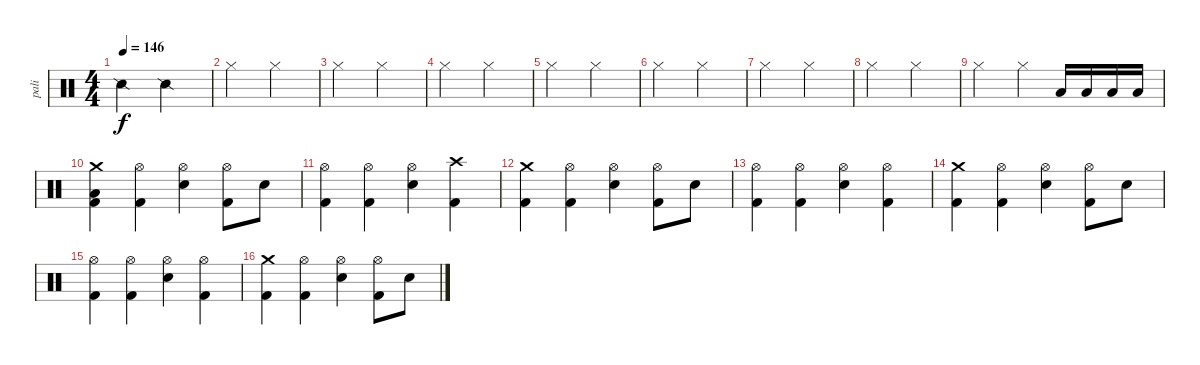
\track ("pali" "pali") {instrument percussion}
\staff {score}
\articulation defaults
\ts (4 4)
\tempo 146
\clef neutral
\ks c "Snare (side stick) 2".2{dy f} "Snare (side stick) 2".2
|
"Hi-Hat (closed)".2 "Hi-Hat (closed)".2 |
"Hi-Hat (closed)".2 "Hi-Hat (closed)".2 |
"Hi-Hat (closed)".2 "Hi-Hat (closed)".2 |
"Hi-Hat (closed)".2 "Hi-Hat (closed)".2 |
"Hi-Hat (closed)".2 "Hi-Hat (closed)".2 |
"Hi-Hat (closed)".2 "Hi-Hat (closed)".2 |
"Hi-Hat (closed)".2 "Hi-Hat (closed)".2 |
"Hi-Hat (closed)".2 "Hi-Hat (closed)".4 "Low Tom (hit)".16 "Low Tom (hit)".16 "Low Tom (hit)".16 "Low Tom (hit)".16 |
("Kick (hit) 2" "Low Floor Tom (hit)" "Crash medium (hit)").4 ("Kick (hit) 2" "Hi-Hat (open)").4 ("Electric Snare (hit)" "Hi-Hat (open)").4 ("Kick (hit) 2" "Hi-Hat (open)").8 "Electric Snare (hit)".8 |
("Kick (hit) 2" "Hi-Hat (open)").4 ("Kick (hit) 2" "Hi-Hat (open)").4 ("Electric Snare (hit)" "Hi-Hat (open)").4 ("Kick (hit) 2" "Crash high (hit)").4 |
("Kick (hit) 2" "Crash medium (hit)").4 ("Kick (hit) 2" "Hi-Hat (open)").4 ("Electric Snare (hit)" "Hi-Hat (open)").4 ("Kick (hit) 2" "Hi-Hat (open)").8 "Electric Snare (hit)".8 |
("Kick (hit) 2" "Hi-Hat (open)").4 ("Kick (hit) 2" "Hi-Hat (open)").4 ("Electric Snare (hit)" "Hi-Hat (open)").4 ("Kick (hit) 2" "Hi-Hat (open)").4 |
("Kick (hit) 2" "Crash medium (hit)").4 ("Kick (hit) 2" "Hi-Hat (open)").4 ("Electric Snare (hit)" "Hi-Hat (open)").4 ("Kick (hit) 2" "Hi-Hat (open)").8 "Electric Snare (hit)".8 |
("Kick (hit) 2" "Hi-Hat (open)").4 ("Kick (hit) 2" "Hi-Hat (open)").4 ("Electric Snare (hit)" "Hi-Hat (open)").4 ("Kick (hit) 2" "Hi-Hat (open)").4 |
("Kick (hit) 2" "Crash medium (hit)").4 ("Kick (hit) 2" "Hi-Hat (open)").4 ("Electric Snare (hit)" "Hi-Hat (open)").4 ("Kick (hit) 2" "Hi-Hat (open)").8 "Electric Snare (hit)".8
